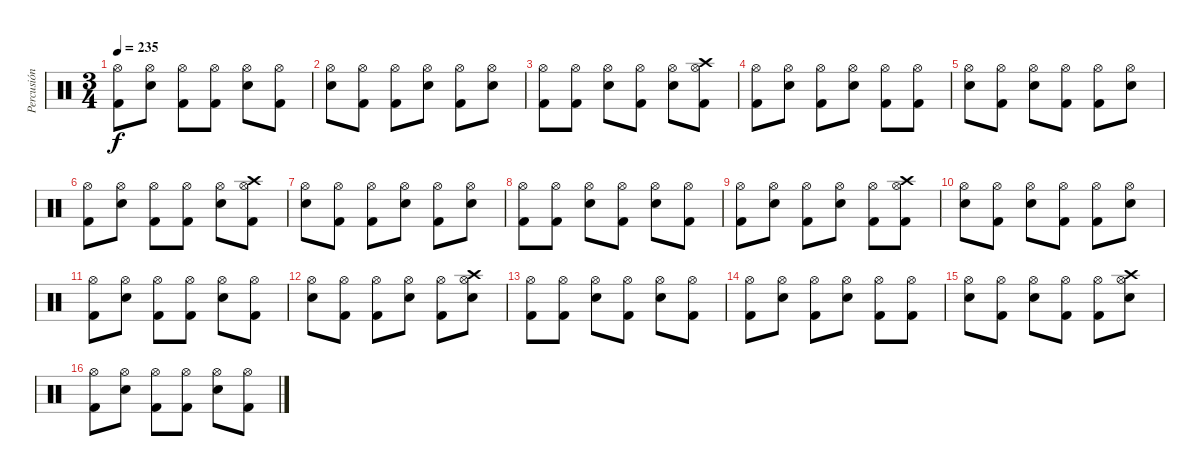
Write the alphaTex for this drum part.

\track ("Percusión" "Percusión") {instrument percussion}
\staff {score}
\articulation defaults
\ts (3 4)
\tempo 235
\clef neutral
\ks c
("Kick (hit) 2" "Hi-Hat (open)").8{dy f} ("Electric Snare (hit)" "Hi-Hat (open)").8 ("Kick (hit) 2" "Hi-Hat (open)").8 ("Kick (hit) 2" "Hi-Hat (open)").8 ("Electric Snare (hit)" "Hi-Hat (open)").8 ("Kick (hit) 2" "Hi-Hat (open)").8 |
("Electric Snare (hit)" "Hi-Hat (open)").8 ("Kick (hit) 2" "Hi-Hat (open)").8 ("Kick (hit) 2" "Hi-Hat (open)").8 ("Electric Snare (hit)" "Hi-Hat (open)").8 ("Kick (hit) 2" "Hi-Hat (open)").8 ("Electric Snare (hit)" "Hi-Hat (open)").8 |
("Kick (hit) 2" "Hi-Hat (open)").8 ("Kick (hit) 2" "Hi-Hat (open)").8 ("Electric Snare (hit)" "Hi-Hat (open)").8 ("Kick (hit) 2" "Hi-Hat (open)").8 ("Electric Snare (hit)" "Hi-Hat (open)").8 ("Kick (hit) 2" "Hi-Hat (open)" "Crash high (hit)").8 |
("Kick (hit) 2" "Hi-Hat (open)").8 ("Electric Snare (hit)" "Hi-Hat (open)").8 ("Kick (hit) 2" "Hi-Hat (open)").8 ("Electric Snare (hit)" "Hi-Hat (open)").8 ("Kick (hit) 2" "Hi-Hat (open)").8 ("Kick (hit) 2" "Hi-Hat (open)").8 |
("Electric Snare (hit)" "Hi-Hat (open)").8 ("Kick (hit) 2" "Hi-Hat (open)").8 ("Electric Snare (hit)" "Hi-Hat (open)").8 ("Kick (hit) 2" "Hi-Hat (open)").8 ("Kick (hit) 2" "Hi-Hat (open)").8 ("Electric Snare (hit)" "Hi-Hat (open)").8 |
("Kick (hit) 2" "Hi-Hat (open)").8 ("Electric Snare (hit)" "Hi-Hat (open)").8 ("Kick (hit) 2" "Hi-Hat (open)").8 ("Kick (hit) 2" "Hi-Hat (open)").8 ("Electric Snare (hit)" "Hi-Hat (open)").8 ("Kick (hit) 2" "Hi-Hat (open)" "Crash high (hit)").8 |
("Electric Snare (hit)" "Hi-Hat (open)").8 ("Kick (hit) 2" "Hi-Hat (open)").8 ("Kick (hit) 2" "Hi-Hat (open)").8 ("Electric Snare (hit)" "Hi-Hat (open)").8 ("Kick (hit) 2" "Hi-Hat (open)").8 ("Electric Snare (hit)" "Hi-Hat (open)").8 |
("Kick (hit) 2" "Hi-Hat (open)").8 ("Kick (hit) 2" "Hi-Hat (open)").8 ("Electric Snare (hit)" "Hi-Hat (open)").8 ("Kick (hit) 2" "Hi-Hat (open)").8 ("Electric Snare (hit)" "Hi-Hat (open)").8 ("Kick (hit) 2" "Hi-Hat (open)").8 |
("Kick (hit) 2" "Hi-Hat (open)").8 ("Electric Snare (hit)" "Hi-Hat (open)").8 ("Kick (hit) 2" "Hi-Hat (open)").8 ("Electric Snare (hit)" "Hi-Hat (open)").8 ("Kick (hit) 2" "Hi-Hat (open)").8 ("Kick (hit) 2" "Hi-Hat (open)" "Crash high (hit)").8 |
("Electric Snare (hit)" "Hi-Hat (open)").8 ("Kick (hit) 2" "Hi-Hat (open)").8 ("Electric Snare (hit)" "Hi-Hat (open)").8 ("Kick (hit) 2" "Hi-Hat (open)").8 ("Kick (hit) 2" "Hi-Hat (open)").8 ("Electric Snare (hit)" "Hi-Hat (open)").8 |
("Kick (hit) 2" "Hi-Hat (open)").8 ("Electric Snare (hit)" "Hi-Hat (open)").8 ("Kick (hit) 2" "Hi-Hat (open)").8 ("Kick (hit) 2" "Hi-Hat (open)").8 ("Electric Snare (hit)" "Hi-Hat (open)").8 ("Kick (hit) 2" "Hi-Hat (open)").8 |
("Electric Snare (hit)" "Hi-Hat (open)").8 ("Kick (hit) 2" "Hi-Hat (open)").8 ("Kick (hit) 2" "Hi-Hat (open)").8 ("Electric Snare (hit)" "Hi-Hat (open)").8 ("Kick (hit) 2" "Hi-Hat (open)").8 ("Electric Snare (hit)" "Hi-Hat (open)" "Crash high (hit)").8 |
("Kick (hit) 2" "Hi-Hat (open)").8 ("Kick (hit) 2" "Hi-Hat (open)").8 ("Electric Snare (hit)" "Hi-Hat (open)").8 ("Kick (hit) 2" "Hi-Hat (open)").8 ("Electric Snare (hit)" "Hi-Hat (open)").8 ("Kick (hit) 2" "Hi-Hat (open)").8 |
("Kick (hit) 2" "Hi-Hat (open)").8 ("Electric Snare (hit)" "Hi-Hat (open)").8 ("Kick (hit) 2" "Hi-Hat (open)").8 ("Electric Snare (hit)" "Hi-Hat (open)").8 ("Kick (hit) 2" "Hi-Hat (open)").8 ("Kick (hit) 2" "Hi-Hat (open)").8 |
("Electric Snare (hit)" "Hi-Hat (open)").8 ("Kick (hit) 2" "Hi-Hat (open)").8 ("Electric Snare (hit)" "Hi-Hat (open)").8 ("Kick (hit) 2" "Hi-Hat (open)").8 ("Kick (hit) 2" "Hi-Hat (open)").8 ("Electric Snare (hit)" "Hi-Hat (open)" "Crash high (hit)").8 |
("Kick (hit) 2" "Hi-Hat (open)").8 ("Electric Snare (hit)" "Hi-Hat (open)").8 ("Kick (hit) 2" "Hi-Hat (open)").8 ("Kick (hit) 2" "Hi-Hat (open)").8 ("Electric Snare (hit)" "Hi-Hat (open)").8 ("Kick (hit) 2" "Hi-Hat (open)").8
